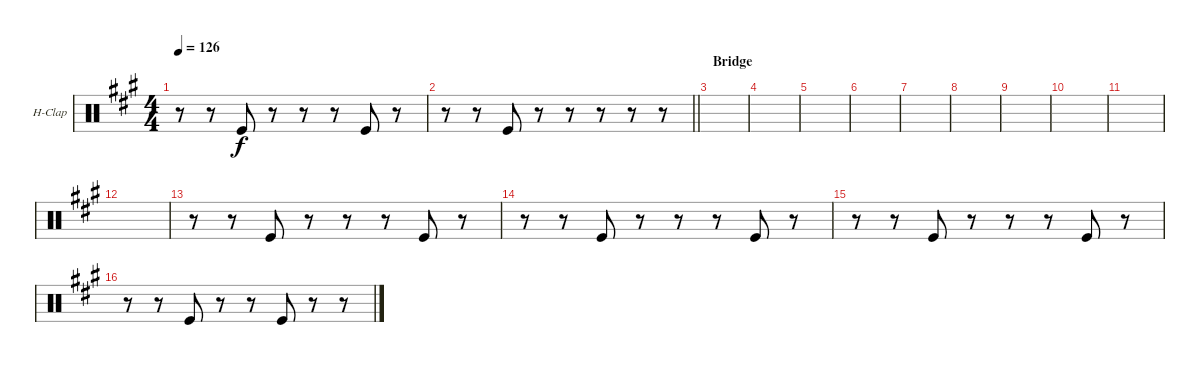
\bracketExtendMode groupsimilarinstruments
\firstSystemTrackNameOrientation horizontal
\otherSystemsTrackNameOrientation horizontal
\track ("Hand Clap" "H-Clap") {instrument percussion}
\staff {score}
\articulation defaults
\ts (4 4)
\tempo 126
\clef neutral
\ks a
r.8{dy f} r.8 "Kick (hit)".8 r.8 r.8 r.8 "Kick (hit)".8 r.8 |
\barLineRight lightlight
r.8 r.8 "Kick (hit)".8 r.8 r.8 r.8 r.8 r.8 |
\section ("" "Bridge")
|
|
|
|
|
|
|
|
|
|
r.8 r.8 "Kick (hit)".8 r.8 r.8 r.8 "Kick (hit)".8 r.8 |
r.8 r.8 "Kick (hit)".8 r.8 r.8 r.8 "Kick (hit)".8 r.8 |
r.8 r.8 "Kick (hit)".8 r.8 r.8 r.8 "Kick (hit)".8 r.8 |
r.8 r.8 "Kick (hit)".8 r.8 r.8 "Kick (hit)".8 r.8 r.8
